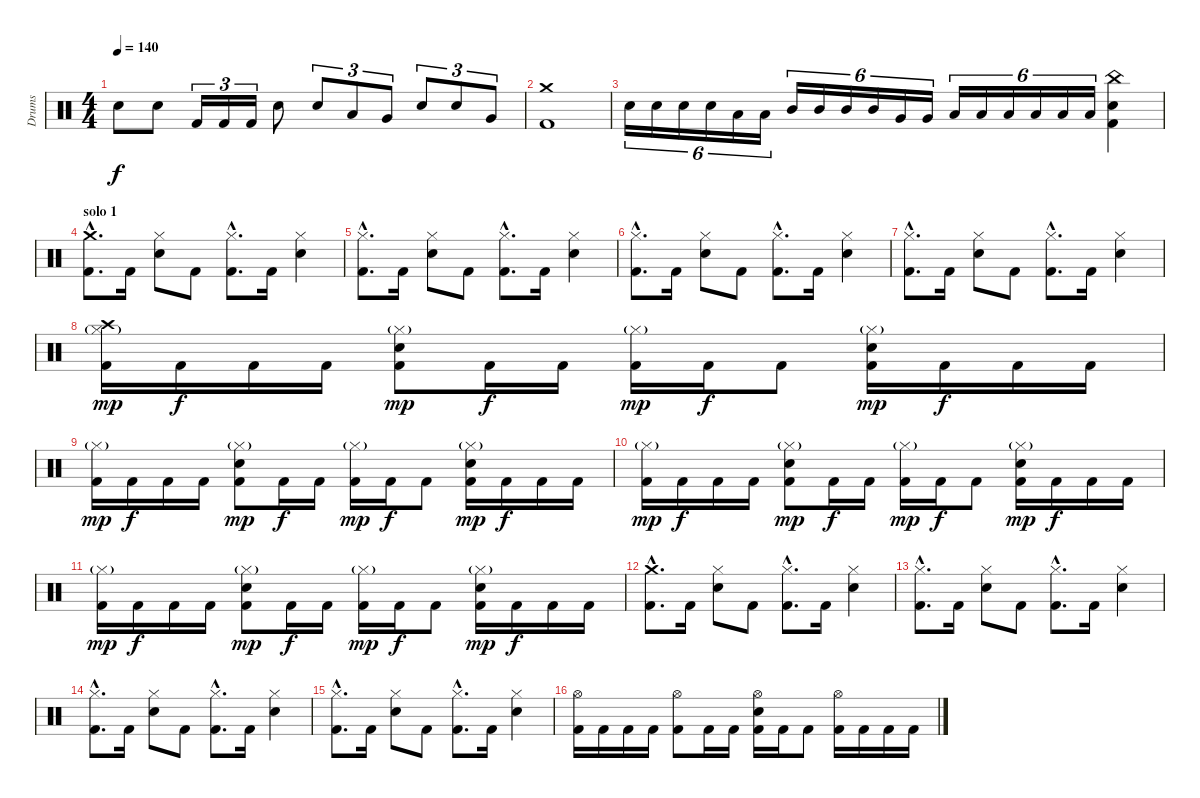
\track ("Drums" "Drums") {instrument percussion}
\staff {score}
\articulation defaults
\ts (4 4)
\tempo 140
\clef neutral
\ks c "Electric Snare (hit)".8{dy f} "Electric Snare (hit)".8 "Kick (hit) 2".16{tu (3 2)} "Kick (hit) 2".16{tu (3 2)} "Kick (hit) 2".16{tu (3 2)} "Electric Snare (hit)".8 "Electric Snare (hit)".8{tu (3 2)} "Low Tom (hit)".8{tu (3 2)} "Very Low Tom (hit)".8{tu (3 2)} "Electric Snare (hit)".8{tu (3 2)} "Electric Snare (hit)".8{tu (3 2)} "Very Low Tom (hit)".8{tu (3 2)}
|
("Crash medium (hit)" "Kick (hit) 2").1 |
"Electric Snare (hit)".16{tu (6 4)} "Electric Snare (hit)".16{tu (6 4)} "Electric Snare (hit)".16{tu (6 4)} "Electric Snare (hit)".16{tu (6 4)} "Low Tom (hit)".16{tu (6 4)} "Low Tom (hit)".16{tu (6 4)} "Mid Tom (hit)".16{tu (6 4)} "Mid Tom (hit)".16{tu (6 4)} "Mid Tom (hit)".16{tu (6 4)} "Mid Tom (hit)".16{tu (6 4)} "Very Low Tom (hit)".16{tu (6 4)} "Very Low Tom (hit)".16{tu (6 4)} "Low Tom (hit)".16{tu (6 4)} "Low Tom (hit)".16{tu (6 4)} "Low Tom (hit)".16{tu (6 4)} "Low Tom (hit)".16{tu (6 4)} "Low Floor Tom (hit)".16{tu (6 4)} "Low Floor Tom (hit)".16{tu (6 4)} ("China (hit)" "Electric Snare (hit)" "Kick (hit) 2").4 |
\section ("" "solo 1")
("Crash medium (hit)"{hac} "Kick (hit) 2"{hac}).8{d} "Kick (hit) 2".16 ("Hi-Hat (closed)" "Electric Snare (hit)").8 "Kick (hit) 2".8 ("Hi-Hat (closed)"{hac} "Kick (hit) 2"{hac}).8{d} "Kick (hit) 2".16 ("Hi-Hat (closed)" "Electric Snare (hit)").4 |
("Hi-Hat (closed)"{hac} "Kick (hit) 2"{hac}).8{d} "Kick (hit) 2".16 ("Hi-Hat (closed)" "Electric Snare (hit)").8 "Kick (hit) 2".8 ("Hi-Hat (closed)"{hac} "Kick (hit) 2"{hac}).8{d} "Kick (hit) 2".16 ("Hi-Hat (closed)" "Electric Snare (hit)").4 |
("Hi-Hat (closed)"{hac} "Kick (hit) 2"{hac}).8{d} "Kick (hit) 2".16 ("Hi-Hat (closed)" "Electric Snare (hit)").8 "Kick (hit) 2".8 ("Hi-Hat (closed)"{hac} "Kick (hit) 2"{hac}).8{d} "Kick (hit) 2".16 ("Hi-Hat (closed)" "Electric Snare (hit)").4 |
("Hi-Hat (closed)"{hac} "Kick (hit) 2"{hac}).8{d} "Kick (hit) 2".16 ("Hi-Hat (closed)" "Electric Snare (hit)").8 "Kick (hit) 2".8 ("Hi-Hat (closed)"{hac} "Kick (hit) 2"{hac}).8{d} "Kick (hit) 2".16 ("Hi-Hat (closed)" "Electric Snare (hit)").4 |
("Crash high (hit)" "Hi-Hat (closed)"{g} "Kick (hit) 2").16{dy mp} "Kick (hit) 2".16{dy f} "Kick (hit) 2".16 "Kick (hit) 2".16 ("Hi-Hat (closed)"{g} "Electric Snare (hit)" "Kick (hit) 2").8{dy mp} "Kick (hit) 2".16{dy f} "Kick (hit) 2".16 ("Hi-Hat (closed)"{g} "Kick (hit) 2").16{dy mp} "Kick (hit) 2".16{dy f} "Kick (hit) 2".8 ("Hi-Hat (closed)"{g} "Electric Snare (hit)" "Kick (hit) 2").16{dy mp} "Kick (hit) 2".16{dy f} "Kick (hit) 2".16 "Kick (hit) 2".16 |
("Hi-Hat (closed)"{g} "Kick (hit) 2").16{dy mp} "Kick (hit) 2".16{dy f} "Kick (hit) 2".16 "Kick (hit) 2".16 ("Hi-Hat (closed)"{g} "Electric Snare (hit)" "Kick (hit) 2").8{dy mp} "Kick (hit) 2".16{dy f} "Kick (hit) 2".16 ("Hi-Hat (closed)"{g} "Kick (hit) 2").16{dy mp} "Kick (hit) 2".16{dy f} "Kick (hit) 2".8 ("Hi-Hat (closed)"{g} "Electric Snare (hit)" "Kick (hit) 2").16{dy mp} "Kick (hit) 2".16{dy f} "Kick (hit) 2".16 "Kick (hit) 2".16 |
("Hi-Hat (closed)"{g} "Kick (hit) 2").16{dy mp} "Kick (hit) 2".16{dy f} "Kick (hit) 2".16 "Kick (hit) 2".16 ("Hi-Hat (closed)"{g} "Electric Snare (hit)" "Kick (hit) 2").8{dy mp} "Kick (hit) 2".16{dy f} "Kick (hit) 2".16 ("Hi-Hat (closed)"{g} "Kick (hit) 2").16{dy mp} "Kick (hit) 2".16{dy f} "Kick (hit) 2".8 ("Hi-Hat (closed)"{g} "Electric Snare (hit)" "Kick (hit) 2").16{dy mp} "Kick (hit) 2".16{dy f} "Kick (hit) 2".16 "Kick (hit) 2".16 |
("Hi-Hat (closed)"{g} "Kick (hit) 2").16{dy mp} "Kick (hit) 2".16{dy f} "Kick (hit) 2".16 "Kick (hit) 2".16 ("Hi-Hat (closed)"{g} "Electric Snare (hit)" "Kick (hit) 2").8{dy mp} "Kick (hit) 2".16{dy f} "Kick (hit) 2".16 ("Hi-Hat (closed)"{g} "Kick (hit) 2").16{dy mp} "Kick (hit) 2".16{dy f} "Kick (hit) 2".8 ("Hi-Hat (closed)"{g} "Electric Snare (hit)" "Kick (hit) 2").16{dy mp} "Kick (hit) 2".16{dy f} "Kick (hit) 2".16 "Kick (hit) 2".16 |
("Crash medium (hit)"{hac} "Kick (hit) 2"{hac}).8{d} "Kick (hit) 2".16 ("Hi-Hat (closed)" "Electric Snare (hit)").8 "Kick (hit) 2".8 ("Hi-Hat (closed)"{hac} "Kick (hit) 2"{hac}).8{d} "Kick (hit) 2".16 ("Hi-Hat (closed)" "Electric Snare (hit)").4 |
("Hi-Hat (closed)"{hac} "Kick (hit) 2"{hac}).8{d} "Kick (hit) 2".16 ("Hi-Hat (closed)" "Electric Snare (hit)").8 "Kick (hit) 2".8 ("Hi-Hat (closed)"{hac} "Kick (hit) 2"{hac}).8{d} "Kick (hit) 2".16 ("Hi-Hat (closed)" "Electric Snare (hit)").4 |
("Hi-Hat (closed)"{hac} "Kick (hit) 2"{hac}).8{d} "Kick (hit) 2".16 ("Hi-Hat (closed)" "Electric Snare (hit)").8 "Kick (hit) 2".8 ("Hi-Hat (closed)"{hac} "Kick (hit) 2"{hac}).8{d} "Kick (hit) 2".16 ("Hi-Hat (closed)" "Electric Snare (hit)").4 |
("Hi-Hat (closed)"{hac} "Kick (hit) 2"{hac}).8{d} "Kick (hit) 2".16 ("Hi-Hat (closed)" "Electric Snare (hit)").8 "Kick (hit) 2".8 ("Hi-Hat (closed)"{hac} "Kick (hit) 2"{hac}).8{d} "Kick (hit) 2".16 ("Hi-Hat (closed)" "Electric Snare (hit)").4 |
("Hi-Hat (open)" "Kick (hit) 2").16 "Kick (hit) 2".16 "Kick (hit) 2".16 "Kick (hit) 2".16 ("Hi-Hat (open)" "Kick (hit) 2").8 "Kick (hit) 2".16 "Kick (hit) 2".16 ("Hi-Hat (open)" "Electric Snare (hit)" "Kick (hit) 2").16 "Kick (hit) 2".16 "Kick (hit) 2".8 ("Hi-Hat (open)" "Kick (hit) 2").16 "Kick (hit) 2".16 "Kick (hit) 2".16 "Kick (hit) 2".16
